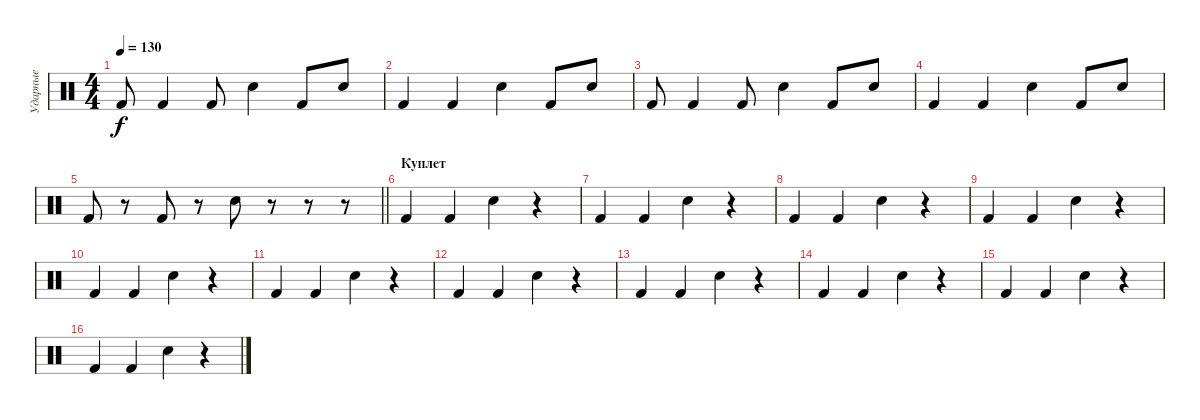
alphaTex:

\track ("Ударные" "Ударные") {instrument percussion}
\staff {score}
\articulation defaults
\ts (4 4)
\tempo 130
\clef neutral
\ks c "Kick (hit) 2".8{dy f} "Kick (hit) 2".4 "Kick (hit) 2".8 "Snare (hit) 2".4 "Kick (hit) 2".8 "Snare (hit) 2".8
|
"Kick (hit) 2".4 "Kick (hit) 2".4 "Snare (hit) 2".4 "Kick (hit) 2".8 "Snare (hit) 2".8 |
"Kick (hit) 2".8 "Kick (hit) 2".4 "Kick (hit) 2".8 "Snare (hit) 2".4 "Kick (hit) 2".8 "Snare (hit) 2".8 |
"Kick (hit) 2".4 "Kick (hit) 2".4 "Snare (hit) 2".4 "Kick (hit) 2".8 "Snare (hit) 2".8 |
\barLineRight lightlight "Kick (hit) 2".8
r.8 "Kick (hit) 2".8 r.8 "Snare (hit) 2".8 r.8 r.8 r.8 |
\section ("" "Куплет")
"Kick (hit) 2".4 "Kick (hit) 2".4 "Snare (hit) 2".4 r.4 |
"Kick (hit) 2".4 "Kick (hit) 2".4 "Snare (hit) 2".4 r.4 |
"Kick (hit) 2".4 "Kick (hit) 2".4 "Snare (hit) 2".4 r.4 |
"Kick (hit) 2".4 "Kick (hit) 2".4 "Snare (hit) 2".4 r.4 |
"Kick (hit) 2".4 "Kick (hit) 2".4 "Snare (hit) 2".4 r.4 |
"Kick (hit) 2".4 "Kick (hit) 2".4 "Snare (hit) 2".4 r.4 |
"Kick (hit) 2".4 "Kick (hit) 2".4 "Snare (hit) 2".4 r.4 |
"Kick (hit) 2".4 "Kick (hit) 2".4 "Snare (hit) 2".4 r.4 |
"Kick (hit) 2".4 "Kick (hit) 2".4 "Snare (hit) 2".4 r.4 |
"Kick (hit) 2".4 "Kick (hit) 2".4 "Snare (hit) 2".4 r.4 |
"Kick (hit) 2".4 "Kick (hit) 2".4 "Snare (hit) 2".4 r.4
